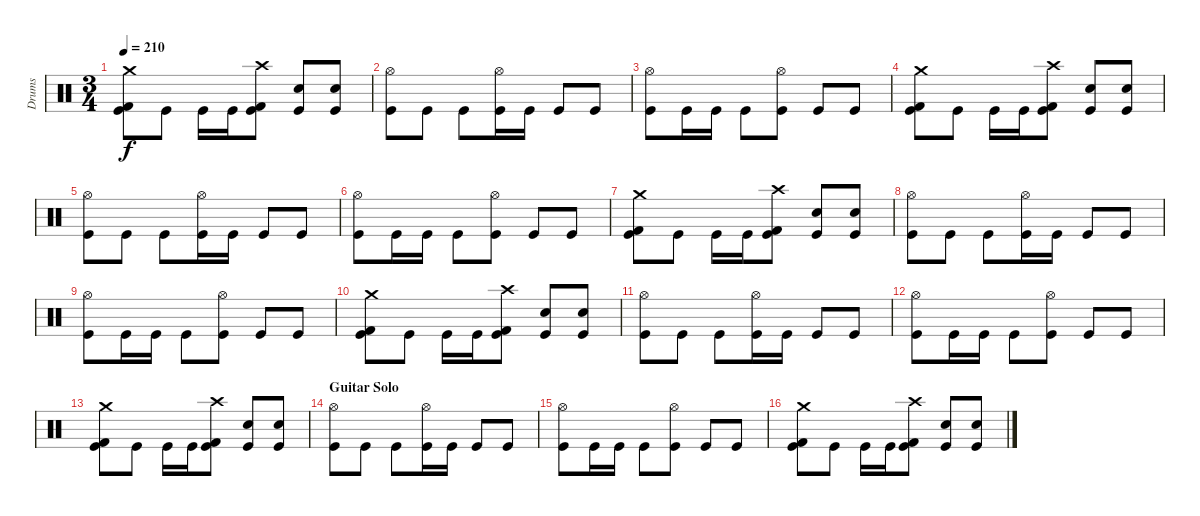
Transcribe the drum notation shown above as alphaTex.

\track ("Drums" "Drums") {instrument percussion}
\staff {score}
\articulation defaults
\ts (3 4)
\tempo 210
\clef neutral
\ks c
("Crash medium (hit)" "Kick (hit)" "Kick (hit) 2").8{dy f} "Kick (hit)".8 "Kick (hit)".16 "Kick (hit)".16 ("Crash high (hit)" "Kick (hit)" "Kick (hit) 2").8 ("Kick (hit)" "Electric Snare (hit)").8 ("Kick (hit)" "Electric Snare (hit)").8 |
\section ("" "")
("Hi-Hat (open)" "Kick (hit)").8 "Kick (hit)".8 "Kick (hit)".8 ("Hi-Hat (open)" "Kick (hit)").16 "Kick (hit)".16 "Kick (hit)".8 "Kick (hit)".8 |
("Hi-Hat (open)" "Kick (hit)").8 "Kick (hit)".16 "Kick (hit)".16 "Kick (hit)".8 ("Hi-Hat (open)" "Kick (hit)").8 "Kick (hit)".8 "Kick (hit)".8 |
("Crash medium (hit)" "Kick (hit)" "Kick (hit) 2").8 "Kick (hit)".8 "Kick (hit)".16 "Kick (hit)".16 ("Crash high (hit)" "Kick (hit)" "Kick (hit) 2").8 ("Kick (hit)" "Electric Snare (hit)").8 ("Kick (hit)" "Electric Snare (hit)").8 |
("Hi-Hat (open)" "Kick (hit)").8 "Kick (hit)".8 "Kick (hit)".8 ("Hi-Hat (open)" "Kick (hit)").16 "Kick (hit)".16 "Kick (hit)".8 "Kick (hit)".8 |
("Hi-Hat (open)" "Kick (hit)").8 "Kick (hit)".16 "Kick (hit)".16 "Kick (hit)".8 ("Hi-Hat (open)" "Kick (hit)").8 "Kick (hit)".8 "Kick (hit)".8 |
("Crash medium (hit)" "Kick (hit)" "Kick (hit) 2").8 "Kick (hit)".8 "Kick (hit)".16 "Kick (hit)".16 ("Crash high (hit)" "Kick (hit)" "Kick (hit) 2").8 ("Kick (hit)" "Electric Snare (hit)").8 ("Kick (hit)" "Electric Snare (hit)").8 |
("Hi-Hat (open)" "Kick (hit)").8 "Kick (hit)".8 "Kick (hit)".8 ("Hi-Hat (open)" "Kick (hit)").16 "Kick (hit)".16 "Kick (hit)".8 "Kick (hit)".8 |
("Hi-Hat (open)" "Kick (hit)").8 "Kick (hit)".16 "Kick (hit)".16 "Kick (hit)".8 ("Hi-Hat (open)" "Kick (hit)").8 "Kick (hit)".8 "Kick (hit)".8 |
("Crash medium (hit)" "Kick (hit)" "Kick (hit) 2").8 "Kick (hit)".8 "Kick (hit)".16 "Kick (hit)".16 ("Crash high (hit)" "Kick (hit)" "Kick (hit) 2").8 ("Kick (hit)" "Electric Snare (hit)").8 ("Kick (hit)" "Electric Snare (hit)").8 |
("Hi-Hat (open)" "Kick (hit)").8 "Kick (hit)".8 "Kick (hit)".8 ("Hi-Hat (open)" "Kick (hit)").16 "Kick (hit)".16 "Kick (hit)".8 "Kick (hit)".8 |
("Hi-Hat (open)" "Kick (hit)").8 "Kick (hit)".16 "Kick (hit)".16 "Kick (hit)".8 ("Hi-Hat (open)" "Kick (hit)").8 "Kick (hit)".8 "Kick (hit)".8 |
("Crash medium (hit)" "Kick (hit)" "Kick (hit) 2").8 "Kick (hit)".8 "Kick (hit)".16 "Kick (hit)".16 ("Crash high (hit)" "Kick (hit)" "Kick (hit) 2").8 ("Kick (hit)" "Electric Snare (hit)").8 ("Kick (hit)" "Electric Snare (hit)").8 |
\section ("" "Guitar Solo")
("Hi-Hat (open)" "Kick (hit)").8 "Kick (hit)".8 "Kick (hit)".8 ("Hi-Hat (open)" "Kick (hit)").16 "Kick (hit)".16 "Kick (hit)".8 "Kick (hit)".8 |
("Hi-Hat (open)" "Kick (hit)").8 "Kick (hit)".16 "Kick (hit)".16 "Kick (hit)".8 ("Hi-Hat (open)" "Kick (hit)").8 "Kick (hit)".8 "Kick (hit)".8 |
("Crash medium (hit)" "Kick (hit)" "Kick (hit) 2").8 "Kick (hit)".8 "Kick (hit)".16 "Kick (hit)".16 ("Crash high (hit)" "Kick (hit)" "Kick (hit) 2").8 ("Kick (hit)" "Electric Snare (hit)").8 ("Kick (hit)" "Electric Snare (hit)").8
